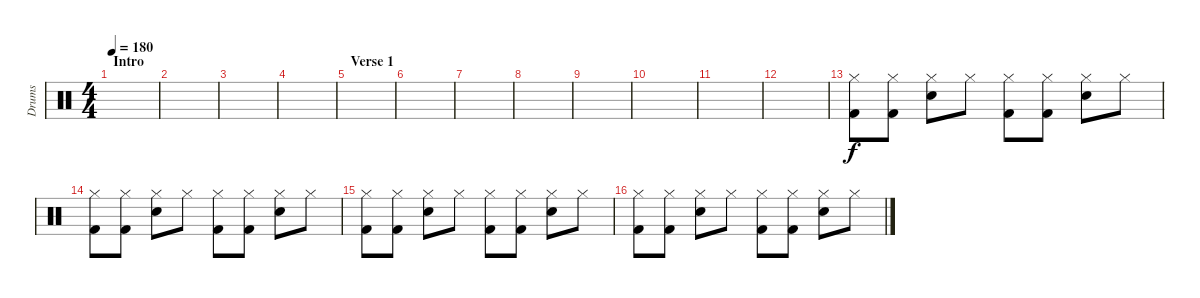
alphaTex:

\track ("Drums" "Drums") {instrument percussion}
\staff {score}
\articulation defaults
\ts (4 4)
\section ("" "Intro")
\tempo 180
\clef neutral
\ks c
|
|
|
|
\section ("" "Verse 1")
|
|
|
|
|
|
|
|
("Hi-Hat (closed)" "Kick (hit) 2").8 ("Hi-Hat (closed)" "Kick (hit) 2").8 ("Hi-Hat (closed)" "Snare (hit) 2").8 "Hi-Hat (closed)".8 ("Hi-Hat (closed)" "Kick (hit) 2").8 ("Hi-Hat (closed)" "Kick (hit) 2").8 ("Hi-Hat (closed)" "Snare (hit) 2").8 "Hi-Hat (closed)".8 |
("Hi-Hat (closed)" "Kick (hit) 2").8 ("Hi-Hat (closed)" "Kick (hit) 2").8 ("Hi-Hat (closed)" "Snare (hit) 2").8 "Hi-Hat (closed)".8 ("Hi-Hat (closed)" "Kick (hit) 2").8 ("Hi-Hat (closed)" "Kick (hit) 2").8 ("Hi-Hat (closed)" "Snare (hit) 2").8 "Hi-Hat (closed)".8 |
("Hi-Hat (closed)" "Kick (hit) 2").8 ("Hi-Hat (closed)" "Kick (hit) 2").8 ("Hi-Hat (closed)" "Snare (hit) 2").8 "Hi-Hat (closed)".8 ("Hi-Hat (closed)" "Kick (hit) 2").8 ("Hi-Hat (closed)" "Kick (hit) 2").8 ("Hi-Hat (closed)" "Snare (hit) 2").8 "Hi-Hat (closed)".8 |
("Hi-Hat (closed)" "Kick (hit) 2").8 ("Hi-Hat (closed)" "Kick (hit) 2").8 ("Hi-Hat (closed)" "Snare (hit) 2").8 "Hi-Hat (closed)".8 ("Hi-Hat (closed)" "Kick (hit) 2").8 ("Hi-Hat (closed)" "Kick (hit) 2").8 ("Hi-Hat (closed)" "Snare (hit) 2").8 "Hi-Hat (closed)".8
